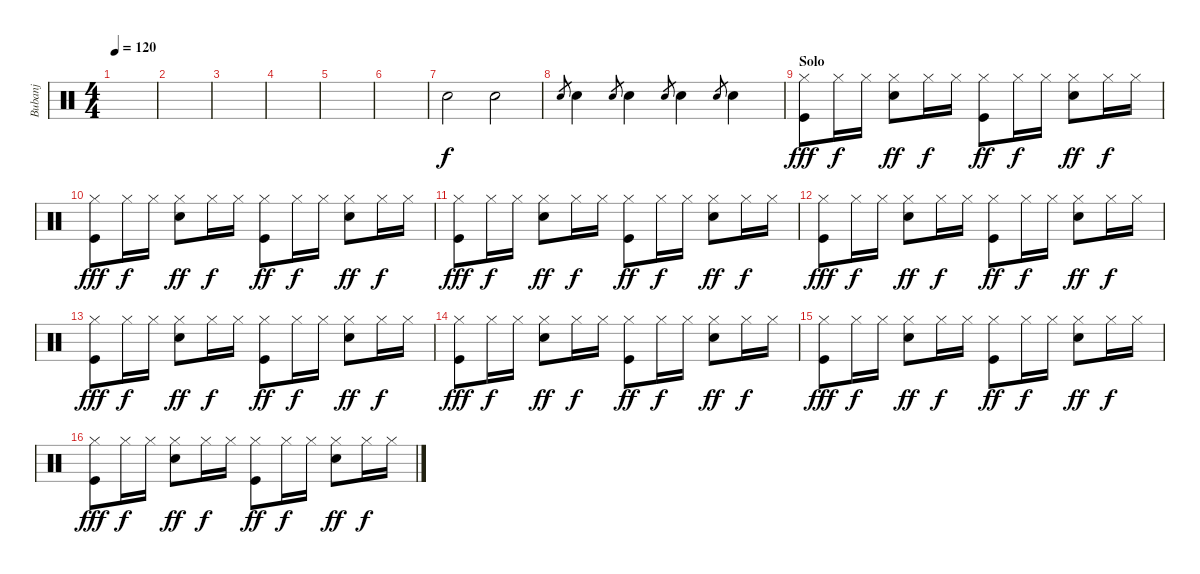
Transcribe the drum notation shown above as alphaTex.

\track ("Bubanj" "Bubanj") {instrument percussion}
\staff {score}
\articulation defaults
\ts (4 4)
\tempo 120
\clef neutral
\ks c
|
|
|
|
|
|
"Electric Snare (hit)".2 "Electric Snare (hit)".2 |
"Electric Snare (hit)".8{gr} "Electric Snare (hit)".4 "Electric Snare (hit)".8{gr} "Electric Snare (hit)".4 "Electric Snare (hit)".8{gr} "Electric Snare (hit)".4 "Electric Snare (hit)".8{gr} "Electric Snare (hit)".4 |
\section ("" "Solo")
("Kick (hit)" "Hi-Hat (closed)").8{dy fff} "Hi-Hat (closed)".16{dy f} "Hi-Hat (closed)".16 ("Electric Snare (hit)" "Hi-Hat (closed)").8{dy ff} "Hi-Hat (closed)".16{dy f} "Hi-Hat (closed)".16 ("Kick (hit)" "Hi-Hat (closed)").8{dy ff} "Hi-Hat (closed)".16{dy f} "Hi-Hat (closed)".16 ("Electric Snare (hit)" "Hi-Hat (closed)").8{dy ff} "Hi-Hat (closed)".16{dy f} "Hi-Hat (closed)".16 |
("Kick (hit)" "Hi-Hat (closed)").8{dy fff} "Hi-Hat (closed)".16{dy f} "Hi-Hat (closed)".16 ("Electric Snare (hit)" "Hi-Hat (closed)").8{dy ff} "Hi-Hat (closed)".16{dy f} "Hi-Hat (closed)".16 ("Kick (hit)" "Hi-Hat (closed)").8{dy ff} "Hi-Hat (closed)".16{dy f} "Hi-Hat (closed)".16 ("Electric Snare (hit)" "Hi-Hat (closed)").8{dy ff} "Hi-Hat (closed)".16{dy f} "Hi-Hat (closed)".16 |
("Kick (hit)" "Hi-Hat (closed)").8{dy fff} "Hi-Hat (closed)".16{dy f} "Hi-Hat (closed)".16 ("Electric Snare (hit)" "Hi-Hat (closed)").8{dy ff} "Hi-Hat (closed)".16{dy f} "Hi-Hat (closed)".16 ("Kick (hit)" "Hi-Hat (closed)").8{dy ff} "Hi-Hat (closed)".16{dy f} "Hi-Hat (closed)".16 ("Electric Snare (hit)" "Hi-Hat (closed)").8{dy ff} "Hi-Hat (closed)".16{dy f} "Hi-Hat (closed)".16 |
("Kick (hit)" "Hi-Hat (closed)").8{dy fff} "Hi-Hat (closed)".16{dy f} "Hi-Hat (closed)".16 ("Electric Snare (hit)" "Hi-Hat (closed)").8{dy ff} "Hi-Hat (closed)".16{dy f} "Hi-Hat (closed)".16 ("Kick (hit)" "Hi-Hat (closed)").8{dy ff} "Hi-Hat (closed)".16{dy f} "Hi-Hat (closed)".16 ("Electric Snare (hit)" "Hi-Hat (closed)").8{dy ff} "Hi-Hat (closed)".16{dy f} "Hi-Hat (closed)".16 |
("Kick (hit)" "Hi-Hat (closed)").8{dy fff} "Hi-Hat (closed)".16{dy f} "Hi-Hat (closed)".16 ("Electric Snare (hit)" "Hi-Hat (closed)").8{dy ff} "Hi-Hat (closed)".16{dy f} "Hi-Hat (closed)".16 ("Kick (hit)" "Hi-Hat (closed)").8{dy ff} "Hi-Hat (closed)".16{dy f} "Hi-Hat (closed)".16 ("Electric Snare (hit)" "Hi-Hat (closed)").8{dy ff} "Hi-Hat (closed)".16{dy f} "Hi-Hat (closed)".16 |
("Kick (hit)" "Hi-Hat (closed)").8{dy fff} "Hi-Hat (closed)".16{dy f} "Hi-Hat (closed)".16 ("Electric Snare (hit)" "Hi-Hat (closed)").8{dy ff} "Hi-Hat (closed)".16{dy f} "Hi-Hat (closed)".16 ("Kick (hit)" "Hi-Hat (closed)").8{dy ff} "Hi-Hat (closed)".16{dy f} "Hi-Hat (closed)".16 ("Electric Snare (hit)" "Hi-Hat (closed)").8{dy ff} "Hi-Hat (closed)".16{dy f} "Hi-Hat (closed)".16 |
("Kick (hit)" "Hi-Hat (closed)").8{dy fff} "Hi-Hat (closed)".16{dy f} "Hi-Hat (closed)".16 ("Electric Snare (hit)" "Hi-Hat (closed)").8{dy ff} "Hi-Hat (closed)".16{dy f} "Hi-Hat (closed)".16 ("Kick (hit)" "Hi-Hat (closed)").8{dy ff} "Hi-Hat (closed)".16{dy f} "Hi-Hat (closed)".16 ("Electric Snare (hit)" "Hi-Hat (closed)").8{dy ff} "Hi-Hat (closed)".16{dy f} "Hi-Hat (closed)".16 |
("Kick (hit)" "Hi-Hat (closed)").8{dy fff} "Hi-Hat (closed)".16{dy f} "Hi-Hat (closed)".16 ("Electric Snare (hit)" "Hi-Hat (closed)").8{dy ff} "Hi-Hat (closed)".16{dy f} "Hi-Hat (closed)".16 ("Kick (hit)" "Hi-Hat (closed)").8{dy ff} "Hi-Hat (closed)".16{dy f} "Hi-Hat (closed)".16 ("Electric Snare (hit)" "Hi-Hat (closed)").8{dy ff} "Hi-Hat (closed)".16{dy f} "Hi-Hat (closed)".16
